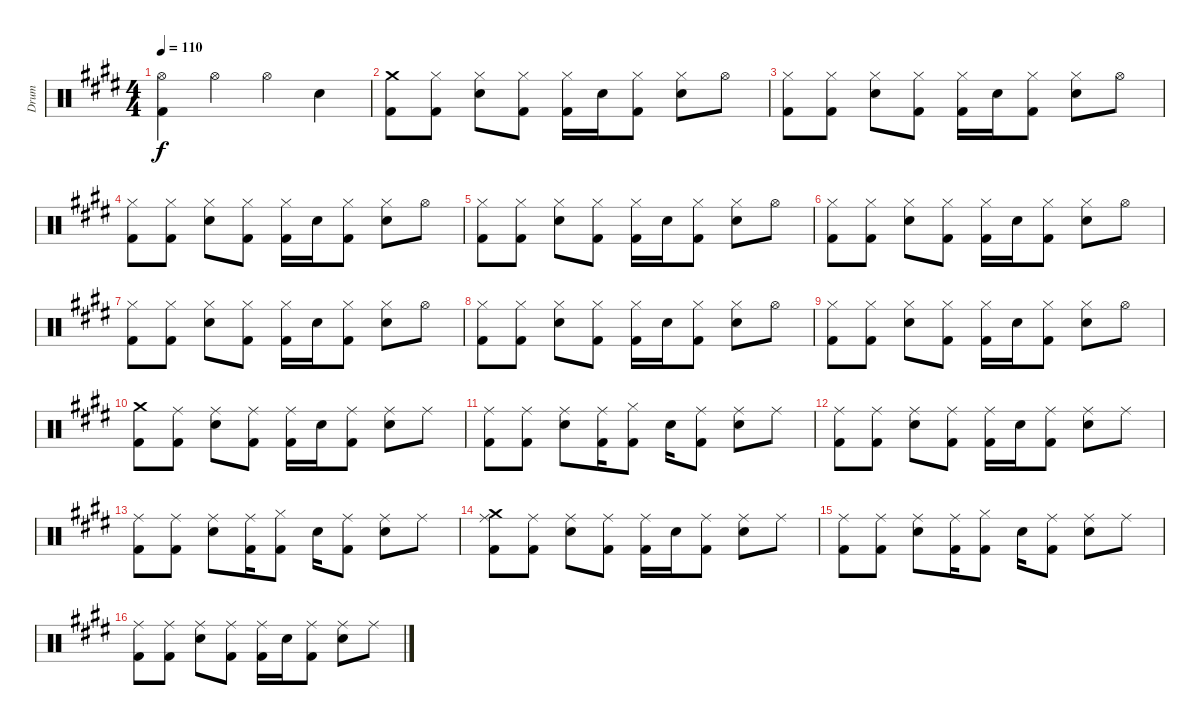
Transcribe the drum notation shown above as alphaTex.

\track ("Drum" "Drum") {instrument percussion}
\staff {score}
\articulation defaults
\ts (4 4)
\tempo 110
\clef neutral
\ks c#minor
("Hi-Hat (open)" "Kick (hit) 2").4{dy f} "Hi-Hat (open)".4 "Hi-Hat (open)".4 "Snare (hit) 2".4 |
("Crash medium (hit)" "Kick (hit) 2").8 ("Hi-Hat (closed)" "Kick (hit) 2").8 ("Hi-Hat (closed)" "Snare (hit) 2").8 ("Hi-Hat (closed)" "Kick (hit) 2").8 ("Hi-Hat (closed)" "Kick (hit) 2").16 "Snare (hit) 2".16 ("Hi-Hat (closed)" "Kick (hit) 2").8 ("Hi-Hat (closed)" "Snare (hit) 2").8 "Hi-Hat (open)".8 |
("Hi-Hat (closed)" "Kick (hit) 2").8 ("Hi-Hat (closed)" "Kick (hit) 2").8 ("Hi-Hat (closed)" "Snare (hit) 2").8 ("Hi-Hat (closed)" "Kick (hit) 2").8 ("Hi-Hat (closed)" "Kick (hit) 2").16 "Snare (hit) 2".16 ("Hi-Hat (closed)" "Kick (hit) 2").8 ("Hi-Hat (closed)" "Snare (hit) 2").8 "Hi-Hat (open)".8 |
("Hi-Hat (closed)" "Kick (hit) 2").8 ("Hi-Hat (closed)" "Kick (hit) 2").8 ("Hi-Hat (closed)" "Snare (hit) 2").8 ("Hi-Hat (closed)" "Kick (hit) 2").8 ("Hi-Hat (closed)" "Kick (hit) 2").16 "Snare (hit) 2".16 ("Hi-Hat (closed)" "Kick (hit) 2").8 ("Hi-Hat (closed)" "Snare (hit) 2").8 "Hi-Hat (open)".8 |
("Hi-Hat (closed)" "Kick (hit) 2").8 ("Hi-Hat (closed)" "Kick (hit) 2").8 ("Hi-Hat (closed)" "Snare (hit) 2").8 ("Hi-Hat (closed)" "Kick (hit) 2").8 ("Hi-Hat (closed)" "Kick (hit) 2").16 "Snare (hit) 2".16 ("Hi-Hat (closed)" "Kick (hit) 2").8 ("Hi-Hat (closed)" "Snare (hit) 2").8 "Hi-Hat (open)".8 |
("Hi-Hat (closed)" "Kick (hit) 2").8 ("Hi-Hat (closed)" "Kick (hit) 2").8 ("Hi-Hat (closed)" "Snare (hit) 2").8 ("Hi-Hat (closed)" "Kick (hit) 2").8 ("Hi-Hat (closed)" "Kick (hit) 2").16 "Snare (hit) 2".16 ("Hi-Hat (closed)" "Kick (hit) 2").8 ("Hi-Hat (closed)" "Snare (hit) 2").8 "Hi-Hat (open)".8 |
("Hi-Hat (closed)" "Kick (hit) 2").8 ("Hi-Hat (closed)" "Kick (hit) 2").8 ("Hi-Hat (closed)" "Snare (hit) 2").8 ("Hi-Hat (closed)" "Kick (hit) 2").8 ("Hi-Hat (closed)" "Kick (hit) 2").16 "Snare (hit) 2".16 ("Hi-Hat (closed)" "Kick (hit) 2").8 ("Hi-Hat (closed)" "Snare (hit) 2").8 "Hi-Hat (open)".8 |
("Hi-Hat (closed)" "Kick (hit) 2").8 ("Hi-Hat (closed)" "Kick (hit) 2").8 ("Hi-Hat (closed)" "Snare (hit) 2").8 ("Hi-Hat (closed)" "Kick (hit) 2").8 ("Hi-Hat (closed)" "Kick (hit) 2").16 "Snare (hit) 2".16 ("Hi-Hat (closed)" "Kick (hit) 2").8 ("Hi-Hat (closed)" "Snare (hit) 2").8 "Hi-Hat (open)".8 |
("Hi-Hat (closed)" "Kick (hit) 2").8 ("Hi-Hat (closed)" "Kick (hit) 2").8 ("Hi-Hat (closed)" "Snare (hit) 2").8 ("Hi-Hat (closed)" "Kick (hit) 2").8 ("Hi-Hat (closed)" "Kick (hit) 2").16 "Snare (hit) 2".16 ("Hi-Hat (closed)" "Kick (hit) 2").8 ("Hi-Hat (closed)" "Snare (hit) 2").8 "Hi-Hat (open)".8 |
("Crash medium (hit)" "Kick (hit) 2").8 ("Ride (middle)" "Kick (hit) 2").8 ("Ride (middle)" "Snare (hit) 2").8 ("Ride (middle)" "Kick (hit) 2").8 ("Ride (middle)" "Kick (hit) 2").16 "Snare (hit) 2".16 ("Ride (middle)" "Kick (hit) 2").8 ("Ride (middle)" "Snare (hit) 2").8 "Ride (middle)".8 |
("Ride (middle)" "Kick (hit) 2").8 ("Ride (middle)" "Kick (hit) 2").8 ("Ride (middle)" "Snare (hit) 2").8 ("Ride (middle)" "Kick (hit) 2").16 ("Hi-Hat (closed)" "Kick (hit) 2").8 "Snare (hit) 2".16 ("Ride (middle)" "Kick (hit) 2").8 ("Ride (middle)" "Snare (hit) 2").8 "Ride (middle)".8 |
("Ride (middle)" "Kick (hit) 2").8 ("Ride (middle)" "Kick (hit) 2").8 ("Ride (middle)" "Snare (hit) 2").8 ("Ride (middle)" "Kick (hit) 2").8 ("Ride (middle)" "Kick (hit) 2").16 "Snare (hit) 2".16 ("Ride (middle)" "Kick (hit) 2").8 ("Ride (middle)" "Snare (hit) 2").8 "Ride (middle)".8 |
("Ride (middle)" "Kick (hit) 2").8 ("Ride (middle)" "Kick (hit) 2").8 ("Ride (middle)" "Snare (hit) 2").8 ("Ride (middle)" "Kick (hit) 2").16 ("Hi-Hat (closed)" "Kick (hit) 2").8 "Snare (hit) 2".16 ("Ride (middle)" "Kick (hit) 2").8 ("Ride (middle)" "Snare (hit) 2").8 "Ride (middle)".8 |
("Ride (middle)" "Kick (hit) 2" "Crash medium (hit)").8 ("Ride (middle)" "Kick (hit) 2").8 ("Ride (middle)" "Snare (hit) 2").8 ("Ride (middle)" "Kick (hit) 2").8 ("Ride (middle)" "Kick (hit) 2").16 "Snare (hit) 2".16 ("Ride (middle)" "Kick (hit) 2").8 ("Ride (middle)" "Snare (hit) 2").8 "Ride (middle)".8 |
("Ride (middle)" "Kick (hit) 2").8 ("Ride (middle)" "Kick (hit) 2").8 ("Ride (middle)" "Snare (hit) 2").8 ("Ride (middle)" "Kick (hit) 2").16 ("Hi-Hat (closed)" "Kick (hit) 2").8 "Snare (hit) 2".16 ("Ride (middle)" "Kick (hit) 2").8 ("Ride (middle)" "Snare (hit) 2").8 "Ride (middle)".8 |
("Ride (middle)" "Kick (hit) 2").8 ("Ride (middle)" "Kick (hit) 2").8 ("Ride (middle)" "Snare (hit) 2").8 ("Ride (middle)" "Kick (hit) 2").8 ("Ride (middle)" "Kick (hit) 2").16 "Snare (hit) 2".16 ("Ride (middle)" "Kick (hit) 2").8 ("Ride (middle)" "Snare (hit) 2").8 "Ride (middle)".8
